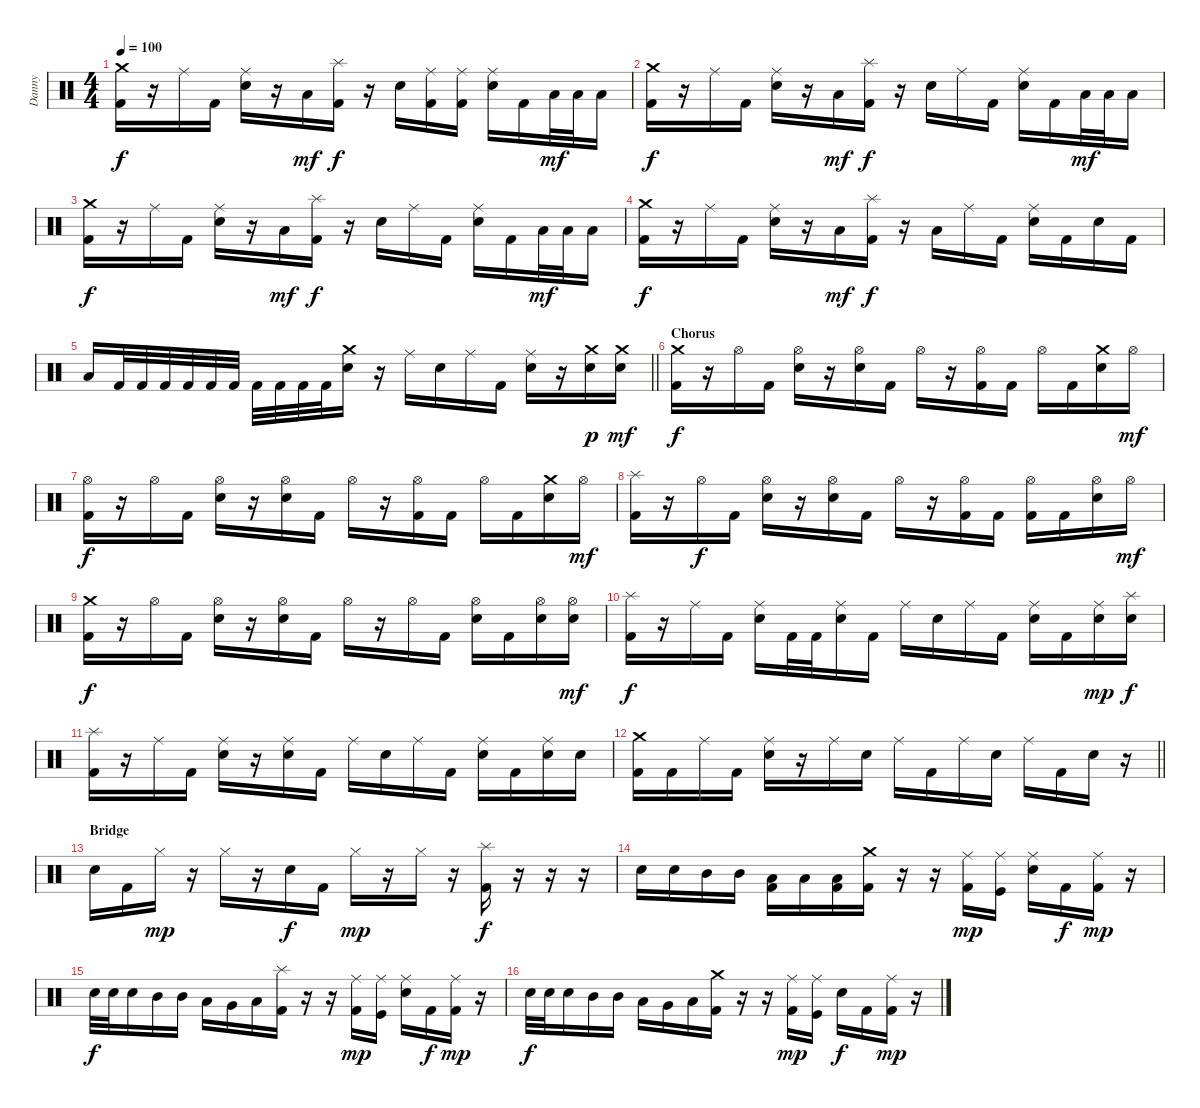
\track ("Danny" "Danny") {instrument percussion}
\staff {score}
\articulation defaults
\ts (4 4)
\tempo 100
\clef neutral
\ks c
("Crash medium (hit)" "Kick (hit) 2").16{dy f} r.16 "Ride (middle)".16 "Kick (hit) 2".16 ("Ride (middle)" "Electric Snare (hit)").16 r.16 "Low Tom (hit)".16{dy mf} ("Splash (hit)" "Kick (hit) 2").16{dy f} r.16 "Electric Snare (hit)".16 ("Ride (middle)" "Kick (hit) 2").16 ("Ride (middle)" "Kick (hit) 2").16 ("Ride (middle)" "Electric Snare (hit)").16 "Kick (hit) 2".16 "Low Tom (hit)".32{dy mf} "Low Tom (hit)".32 "Low Tom (hit)".16 |
("Crash medium (hit)" "Kick (hit) 2").16{dy f} r.16 "Ride (middle)".16 "Kick (hit) 2".16 ("Ride (middle)" "Electric Snare (hit)").16 r.16 "Low Tom (hit)".16{dy mf} ("Splash (hit)" "Kick (hit) 2").16{dy f} r.16 "Electric Snare (hit)".16 "Ride (middle)".16 "Kick (hit) 2".16 ("Ride (middle)" "Electric Snare (hit)").16 "Kick (hit) 2".16 "Low Tom (hit)".32{dy mf} "Low Tom (hit)".32 "Low Tom (hit)".16 |
("Crash medium (hit)" "Kick (hit) 2").16{dy f} r.16 "Ride (middle)".16 "Kick (hit) 2".16 ("Ride (middle)" "Electric Snare (hit)").16 r.16 "Low Tom (hit)".16{dy mf} ("Splash (hit)" "Kick (hit) 2").16{dy f} r.16 "Electric Snare (hit)".16 "Ride (middle)".16 "Kick (hit) 2".16 ("Ride (middle)" "Electric Snare (hit)").16 "Kick (hit) 2".16 "Low Tom (hit)".32{dy mf} "Low Tom (hit)".32 "Low Tom (hit)".16 |
("Crash medium (hit)" "Kick (hit) 2").16{dy f} r.16 "Ride (middle)".16 "Kick (hit) 2".16 ("Ride (middle)" "Electric Snare (hit)").16 r.16 "Low Tom (hit)".16{dy mf} ("Splash (hit)" "Kick (hit) 2").16{dy f} r.16 "Low Tom (hit)".16 "Ride (middle)".16 "Kick (hit) 2".16 ("Ride (middle)" "Electric Snare (hit)").16 "Kick (hit) 2".16 "Electric Snare (hit)".16 "Kick (hit) 2".16 |
\barLineRight lightlight "Low Tom (hit)".16 "Kick (hit) 2".32 "Kick (hit) 2".32 "Kick (hit) 2".32 "Kick (hit) 2".32 "Kick (hit) 2".32 "Kick (hit) 2".32 "Kick (hit) 2".32 "Kick (hit) 2".32 "Kick (hit) 2".32 "Kick (hit) 2".32
("Crash medium (hit)" "Electric Snare (hit)").16 r.16 "Ride (middle)".16 "Electric Snare (hit)".16 "Ride (middle)".16 "Kick (hit) 2".16 ("Ride (middle)" "Electric Snare (hit)").16 r.16 ("Crash medium (hit)" "Electric Snare (hit)").16{dy p} ("Crash medium (hit)" "Electric Snare (hit)").16{dy mf} |
\section ("" "Chorus")
("Crash medium (hit)" "Kick (hit) 2").16{dy f} r.16 "Hi-Hat (open)".16 "Kick (hit) 2".16 ("Hi-Hat (open)" "Electric Snare (hit)").16 r.16 ("Hi-Hat (open)" "Electric Snare (hit)").16 "Kick (hit) 2".16 "Hi-Hat (open)".16 r.16 ("Hi-Hat (open)" "Kick (hit) 2").16 "Kick (hit) 2".16 "Hi-Hat (open)".16 "Kick (hit) 2".16 ("Crash medium (hit)" "Electric Snare (hit)").16 "Hi-Hat (open)".16{dy mf} |
("Hi-Hat (open)" "Kick (hit) 2").16{dy f} r.16 "Hi-Hat (open)".16 "Kick (hit) 2".16 ("Hi-Hat (open)" "Electric Snare (hit)").16 r.16 ("Hi-Hat (open)" "Electric Snare (hit)").16 "Kick (hit) 2".16 "Hi-Hat (open)".16 r.16 ("Hi-Hat (open)" "Kick (hit) 2").16 "Kick (hit) 2".16 "Hi-Hat (open)".16 "Kick (hit) 2".16 ("Crash medium (hit)" "Electric Snare (hit)").16 "Hi-Hat (open)".16{dy mf} |
("Splash (hit)" "Kick (hit) 2").16 r.16 "Hi-Hat (open)".16{dy f} "Kick (hit) 2".16 ("Hi-Hat (open)" "Electric Snare (hit)").16 r.16 ("Hi-Hat (open)" "Electric Snare (hit)").16 "Kick (hit) 2".16 "Hi-Hat (open)".16 r.16 ("Hi-Hat (open)" "Kick (hit) 2").16 "Kick (hit) 2".16 ("Hi-Hat (open)" "Kick (hit) 2").16 "Kick (hit) 2".16 ("Hi-Hat (open)" "Electric Snare (hit)").16 "Hi-Hat (open)".16{dy mf} |
("Crash medium (hit)" "Kick (hit) 2").16{dy f} r.16 "Hi-Hat (open)".16 "Kick (hit) 2".16 ("Hi-Hat (open)" "Electric Snare (hit)").16 r.16 ("Hi-Hat (open)" "Electric Snare (hit)").16 "Kick (hit) 2".16 "Hi-Hat (open)".16 r.16 "Hi-Hat (open)".16 "Kick (hit) 2".16 ("Hi-Hat (open)" "Electric Snare (hit)").16 "Kick (hit) 2".16 ("Hi-Hat (open)" "Electric Snare (hit)").16 ("Hi-Hat (open)" "Electric Snare (hit)").16{dy mf} |
("Splash (hit)" "Kick (hit) 2").16{dy f} r.16 "Ride (middle)".16 "Kick (hit) 2".16 ("Ride (middle)" "Electric Snare (hit)").16 "Kick (hit) 2".32 "Kick (hit) 2".32 ("Ride (middle)" "Electric Snare (hit)").16 "Kick (hit) 2".16 "Ride (middle)".16 "Electric Snare (hit)".16 "Ride (middle)".16 "Kick (hit) 2".16 ("Ride (middle)" "Electric Snare (hit)").16 "Kick (hit) 2".16 ("Ride (middle)" "Electric Snare (hit)").16{dy mp} ("Splash (hit)" "Electric Snare (hit)").16{dy f} |
("Splash (hit)" "Kick (hit) 2").16 r.16 "Ride (middle)".16 "Kick (hit) 2".16 ("Ride (middle)" "Electric Snare (hit)").16 r.16 ("Ride (middle)" "Electric Snare (hit)").16 "Kick (hit) 2".16 "Ride (middle)".16 "Electric Snare (hit)".16 "Ride (middle)".16 "Kick (hit) 2".16 ("Ride (middle)" "Electric Snare (hit)").16 "Kick (hit) 2".16 ("Ride (middle)" "Electric Snare (hit)").16 "Electric Snare (hit)".16 |
\barLineRight lightlight
("Crash medium (hit)" "Kick (hit) 2").16 "Kick (hit) 2".16 "Ride (middle)".16 "Kick (hit) 2".16 ("Ride (middle)" "Electric Snare (hit)").16 r.16 "Ride (middle)".16 "Electric Snare (hit)".16 "Ride (middle)".16 "Kick (hit) 2".16 "Ride (middle)".16 "Electric Snare (hit)".16 "Ride (middle)".16 "Kick (hit) 2".16 "Electric Snare (hit)".16 r.16 |
\section ("" "Bridge")
"Electric Snare (hit)".16 "Kick (hit) 2".16 "Hi-Hat (closed)".16{dy mp} r.16 "Hi-Hat (closed)".16 r.16 "Electric Snare (hit)".16{dy f} "Kick (hit) 2".16 "Hi-Hat (closed)".16{dy mp} r.16 "Hi-Hat (closed)".16 r.16 ("Splash (hit)" "Kick (hit) 2").16{dy f} r.16 r.16 r.16 |
"Electric Snare (hit)".16 "Electric Snare (hit)".16 "Mid Tom (hit)".16 "Mid Tom (hit)".16 ("Low Tom (hit)" "Kick (hit) 2").16 "Low Tom (hit)".16 ("Low Tom (hit)" "Kick (hit) 2").16 ("Crash medium (hit)" "Kick (hit) 2").16 r.16 r.16 ("Ride (middle)" "Kick (hit) 2").16{dy mp} ("Ride (middle)" "Kick (hit)").16 ("Ride (middle)" "Electric Snare (hit)").16 "Kick (hit) 2".16{dy f} ("Ride (middle)" "Kick (hit) 2").16{dy mp} r.16 |
"Electric Snare (hit)".32{dy f} "Electric Snare (hit)".32 "Electric Snare (hit)".16 "Mid Tom (hit)".16 "Mid Tom (hit)".16 "Low Tom (hit)".16 "Very Low Tom (hit)".16 "Low Floor Tom (hit)".16 ("Splash (hit)" "Kick (hit) 2").16 r.16 r.16 ("Ride (middle)" "Kick (hit) 2").16{dy mp} ("Ride (middle)" "Kick (hit)").16 ("Ride (middle)" "Electric Snare (hit)").16 "Kick (hit) 2".16{dy f} ("Ride (middle)" "Kick (hit) 2").16{dy mp} r.16 |
"Electric Snare (hit)".32{dy f} "Electric Snare (hit)".32 "Electric Snare (hit)".16 "Mid Tom (hit)".16 "Mid Tom (hit)".16 "Low Tom (hit)".16 "Very Low Tom (hit)".16 "Low Floor Tom (hit)".16 ("Crash medium (hit)" "Kick (hit) 2").16 r.16 r.16 ("Ride (middle)" "Kick (hit) 2").16{dy mp} ("Ride (middle)" "Kick (hit)").16 "Electric Snare (hit)".16{dy f} "Kick (hit) 2".16 ("Ride (middle)" "Kick (hit) 2").16{dy mp} r.16
